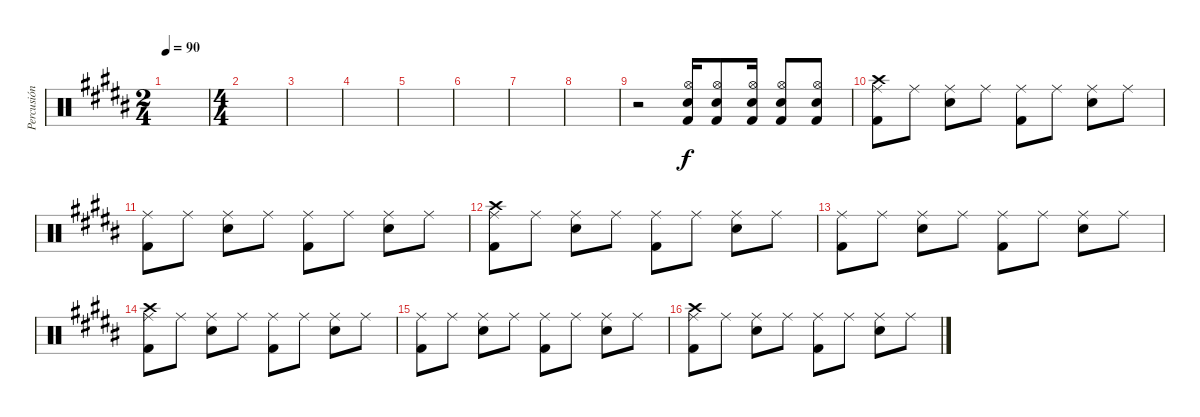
\track ("Percusión" "Percusión") {instrument percussion}
\staff {score}
\articulation defaults
\ts (2 4)
\tempo 90
\clef neutral
\ks b
|
\ts (4 4)
|
|
|
|
|
|
|
r.2 ("Snare (hit) 2" "Hi-Hat (open)" "Kick (hit) 2").16 ("Snare (hit) 2" "Hi-Hat (open)" "Kick (hit) 2").8 ("Snare (hit) 2" "Hi-Hat (open)" "Kick (hit) 2").16 ("Snare (hit) 2" "Hi-Hat (open)" "Kick (hit) 2").8 ("Snare (hit) 2" "Hi-Hat (open)" "Kick (hit) 2").8 |
("Crash high (hit)" "Ride (middle)" "Kick (hit) 2").8 "Ride (middle)".8 ("Snare (hit) 2" "Ride (middle)").8 "Ride (middle)".8 ("Ride (middle)" "Kick (hit) 2").8 "Ride (middle)".8 ("Snare (hit) 2" "Ride (middle)").8 "Ride (middle)".8 |
("Ride (middle)" "Kick (hit) 2").8 "Ride (middle)".8 ("Snare (hit) 2" "Ride (middle)").8 "Ride (middle)".8 ("Ride (middle)" "Kick (hit) 2").8 "Ride (middle)".8 ("Snare (hit) 2" "Ride (middle)").8 "Ride (middle)".8 |
("Crash high (hit)" "Ride (middle)" "Kick (hit) 2").8 "Ride (middle)".8 ("Snare (hit) 2" "Ride (middle)").8 "Ride (middle)".8 ("Ride (middle)" "Kick (hit) 2").8 "Ride (middle)".8 ("Snare (hit) 2" "Ride (middle)").8 "Ride (middle)".8 |
("Ride (middle)" "Kick (hit) 2").8 "Ride (middle)".8 ("Snare (hit) 2" "Ride (middle)").8 "Ride (middle)".8 ("Ride (middle)" "Kick (hit) 2").8 "Ride (middle)".8 ("Snare (hit) 2" "Ride (middle)").8 "Ride (middle)".8 |
("Crash high (hit)" "Ride (middle)" "Kick (hit) 2").8 "Ride (middle)".8 ("Snare (hit) 2" "Ride (middle)").8 "Ride (middle)".8 ("Ride (middle)" "Kick (hit) 2").8 "Ride (middle)".8 ("Snare (hit) 2" "Ride (middle)").8 "Ride (middle)".8 |
("Ride (middle)" "Kick (hit) 2").8 "Ride (middle)".8 ("Snare (hit) 2" "Ride (middle)").8 "Ride (middle)".8 ("Ride (middle)" "Kick (hit) 2").8 "Ride (middle)".8 ("Snare (hit) 2" "Ride (middle)").8 "Ride (middle)".8 |
("Crash high (hit)" "Ride (middle)" "Kick (hit) 2").8 "Ride (middle)".8 ("Snare (hit) 2" "Ride (middle)").8 "Ride (middle)".8 ("Ride (middle)" "Kick (hit) 2").8 "Ride (middle)".8 ("Snare (hit) 2" "Ride (middle)").8 "Ride (middle)".8
